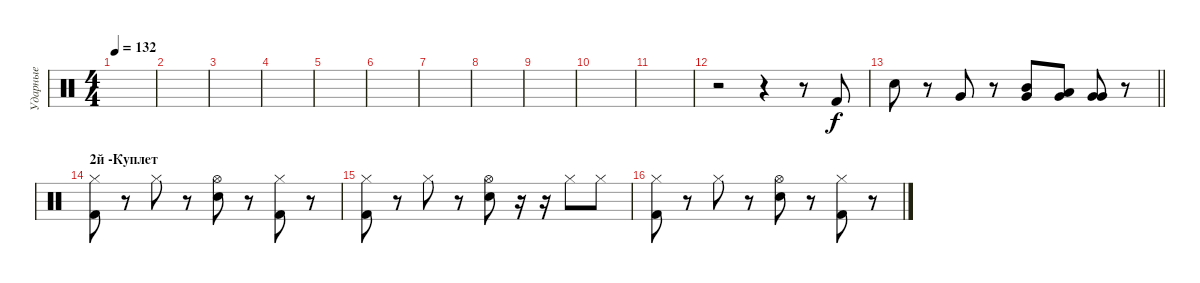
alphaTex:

\track ("Ударные" "Ударные") {instrument percussion}
\staff {score}
\articulation defaults
\ts (4 4)
\tempo 132
\clef neutral
\ks c
|
|
|
|
|
|
|
|
|
|
|
r.2 r.4 r.8 "Kick (hit) 2".8 |
\barLineRight lightlight "Snare (hit) 2".8
r.8 "Very Low Tom (hit)".8 r.8 ("Very Low Tom (hit)" "Mid Tom (hit)").8 ("Very Low Tom (hit)" "Low Tom (hit)").8 ("Very Low Tom (hit)" "Very Low Tom (hit)").8 r.8 |
\section ("" "2й -Куплет")
("Kick (hit) 2" "Hi-Hat (closed)").8 r.8 "Hi-Hat (closed)".8 r.8 ("Snare (hit) 2" "Hi-Hat (open)").8 r.8 ("Kick (hit) 2" "Hi-Hat (closed)").8 r.8 |
("Kick (hit) 2" "Hi-Hat (closed)").8 r.8 "Hi-Hat (closed)".8 r.8 ("Snare (hit) 2" "Hi-Hat (open)").8 r.16 r.16 "Hi-Hat (closed)".8 "Hi-Hat (closed)".8 |
("Kick (hit) 2" "Hi-Hat (closed)").8 r.8 "Hi-Hat (closed)".8 r.8 ("Snare (hit) 2" "Hi-Hat (open)").8 r.8 ("Kick (hit) 2" "Hi-Hat (closed)").8 r.8
